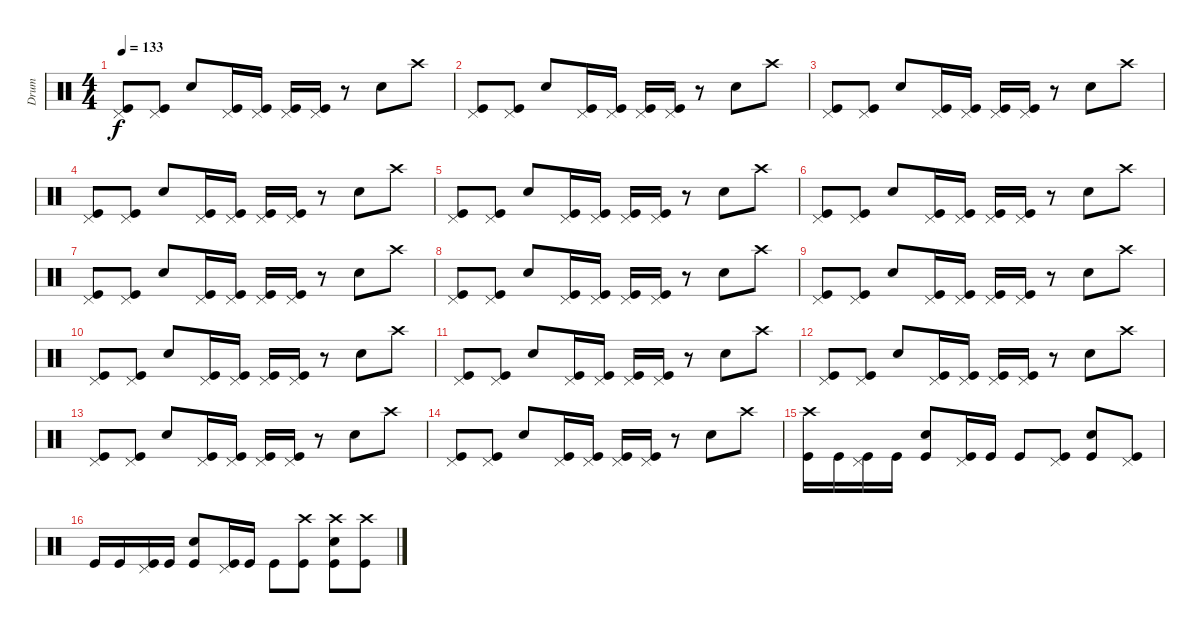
\track ("Drum" "Drum") {instrument percussion}
\staff {score}
\articulation defaults
\ts (4 4)
\tempo 133
\clef neutral
\ks c
("Kick (hit)" "Pedal Hi-Hat (hit)").8{dy f} ("Kick (hit)" "Pedal Hi-Hat (hit)").8 "Snare (hit) 2".8 ("Pedal Hi-Hat (hit)" "Kick (hit)").16 ("Kick (hit)" "Pedal Hi-Hat (hit)").16 ("Kick (hit)" "Pedal Hi-Hat (hit)").16 ("Kick (hit)" "Pedal Hi-Hat (hit)").16 r.8 "Snare (hit) 2".8 "Crash high (hit)".8 |
("Kick (hit)" "Pedal Hi-Hat (hit)").8 ("Kick (hit)" "Pedal Hi-Hat (hit)").8 "Snare (hit) 2".8 ("Pedal Hi-Hat (hit)" "Kick (hit)").16 ("Kick (hit)" "Pedal Hi-Hat (hit)").16 ("Kick (hit)" "Pedal Hi-Hat (hit)").16 ("Kick (hit)" "Pedal Hi-Hat (hit)").16 r.8 "Snare (hit) 2".8 "Crash high (hit)".8 |
("Kick (hit)" "Pedal Hi-Hat (hit)").8 ("Kick (hit)" "Pedal Hi-Hat (hit)").8 "Snare (hit) 2".8 ("Pedal Hi-Hat (hit)" "Kick (hit)").16 ("Kick (hit)" "Pedal Hi-Hat (hit)").16 ("Kick (hit)" "Pedal Hi-Hat (hit)").16 ("Kick (hit)" "Pedal Hi-Hat (hit)").16 r.8 "Snare (hit) 2".8 "Crash high (hit)".8 |
("Kick (hit)" "Pedal Hi-Hat (hit)").8 ("Kick (hit)" "Pedal Hi-Hat (hit)").8 "Snare (hit) 2".8 ("Pedal Hi-Hat (hit)" "Kick (hit)").16 ("Kick (hit)" "Pedal Hi-Hat (hit)").16 ("Kick (hit)" "Pedal Hi-Hat (hit)").16 ("Kick (hit)" "Pedal Hi-Hat (hit)").16 r.8 "Snare (hit) 2".8 "Crash high (hit)".8 |
("Kick (hit)" "Pedal Hi-Hat (hit)").8 ("Kick (hit)" "Pedal Hi-Hat (hit)").8 "Snare (hit) 2".8 ("Pedal Hi-Hat (hit)" "Kick (hit)").16 ("Kick (hit)" "Pedal Hi-Hat (hit)").16 ("Kick (hit)" "Pedal Hi-Hat (hit)").16 ("Kick (hit)" "Pedal Hi-Hat (hit)").16 r.8 "Snare (hit) 2".8 "Crash high (hit)".8 |
("Kick (hit)" "Pedal Hi-Hat (hit)").8 ("Kick (hit)" "Pedal Hi-Hat (hit)").8 "Snare (hit) 2".8 ("Pedal Hi-Hat (hit)" "Kick (hit)").16 ("Kick (hit)" "Pedal Hi-Hat (hit)").16 ("Kick (hit)" "Pedal Hi-Hat (hit)").16 ("Kick (hit)" "Pedal Hi-Hat (hit)").16 r.8 "Snare (hit) 2".8 "Crash high (hit)".8 |
("Kick (hit)" "Pedal Hi-Hat (hit)").8 ("Kick (hit)" "Pedal Hi-Hat (hit)").8 "Snare (hit) 2".8 ("Pedal Hi-Hat (hit)" "Kick (hit)").16 ("Kick (hit)" "Pedal Hi-Hat (hit)").16 ("Kick (hit)" "Pedal Hi-Hat (hit)").16 ("Kick (hit)" "Pedal Hi-Hat (hit)").16 r.8 "Snare (hit) 2".8 "Crash high (hit)".8 |
("Kick (hit)" "Pedal Hi-Hat (hit)").8 ("Kick (hit)" "Pedal Hi-Hat (hit)").8 "Snare (hit) 2".8 ("Pedal Hi-Hat (hit)" "Kick (hit)").16 ("Kick (hit)" "Pedal Hi-Hat (hit)").16 ("Kick (hit)" "Pedal Hi-Hat (hit)").16 ("Kick (hit)" "Pedal Hi-Hat (hit)").16 r.8 "Snare (hit) 2".8 "Crash high (hit)".8 |
("Kick (hit)" "Pedal Hi-Hat (hit)").8 ("Kick (hit)" "Pedal Hi-Hat (hit)").8 "Snare (hit) 2".8 ("Pedal Hi-Hat (hit)" "Kick (hit)").16 ("Kick (hit)" "Pedal Hi-Hat (hit)").16 ("Kick (hit)" "Pedal Hi-Hat (hit)").16 ("Kick (hit)" "Pedal Hi-Hat (hit)").16 r.8 "Snare (hit) 2".8 "Crash high (hit)".8 |
("Kick (hit)" "Pedal Hi-Hat (hit)").8 ("Kick (hit)" "Pedal Hi-Hat (hit)").8 "Snare (hit) 2".8 ("Pedal Hi-Hat (hit)" "Kick (hit)").16 ("Kick (hit)" "Pedal Hi-Hat (hit)").16 ("Kick (hit)" "Pedal Hi-Hat (hit)").16 ("Kick (hit)" "Pedal Hi-Hat (hit)").16 r.8 "Snare (hit) 2".8 "Crash high (hit)".8 |
("Kick (hit)" "Pedal Hi-Hat (hit)").8 ("Kick (hit)" "Pedal Hi-Hat (hit)").8 "Snare (hit) 2".8 ("Pedal Hi-Hat (hit)" "Kick (hit)").16 ("Kick (hit)" "Pedal Hi-Hat (hit)").16 ("Kick (hit)" "Pedal Hi-Hat (hit)").16 ("Kick (hit)" "Pedal Hi-Hat (hit)").16 r.8 "Snare (hit) 2".8 "Crash high (hit)".8 |
("Kick (hit)" "Pedal Hi-Hat (hit)").8 ("Kick (hit)" "Pedal Hi-Hat (hit)").8 "Snare (hit) 2".8 ("Pedal Hi-Hat (hit)" "Kick (hit)").16 ("Kick (hit)" "Pedal Hi-Hat (hit)").16 ("Kick (hit)" "Pedal Hi-Hat (hit)").16 ("Kick (hit)" "Pedal Hi-Hat (hit)").16 r.8 "Snare (hit) 2".8 "Crash high (hit)".8 |
("Kick (hit)" "Pedal Hi-Hat (hit)").8 ("Kick (hit)" "Pedal Hi-Hat (hit)").8 "Snare (hit) 2".8 ("Pedal Hi-Hat (hit)" "Kick (hit)").16 ("Kick (hit)" "Pedal Hi-Hat (hit)").16 ("Kick (hit)" "Pedal Hi-Hat (hit)").16 ("Kick (hit)" "Pedal Hi-Hat (hit)").16 r.8 "Snare (hit) 2".8 "Crash high (hit)".8 |
("Kick (hit)" "Pedal Hi-Hat (hit)").8 ("Kick (hit)" "Pedal Hi-Hat (hit)").8 "Snare (hit) 2".8 ("Pedal Hi-Hat (hit)" "Kick (hit)").16 ("Kick (hit)" "Pedal Hi-Hat (hit)").16 ("Kick (hit)" "Pedal Hi-Hat (hit)").16 ("Kick (hit)" "Pedal Hi-Hat (hit)").16 r.8 "Snare (hit) 2".8 "Crash high (hit)".8 |
("Kick (hit)" "Crash high (hit)").16 "Kick (hit)".16 ("Kick (hit)" "Pedal Hi-Hat (hit)").16 "Kick (hit)".16 ("Kick (hit)" "Snare (hit) 2").8 ("Kick (hit)" "Pedal Hi-Hat (hit)").16 "Kick (hit)".16 "Kick (hit)".8 ("Kick (hit)" "Pedal Hi-Hat (hit)").8 ("Kick (hit)" "Snare (hit) 2").8 ("Kick (hit)" "Pedal Hi-Hat (hit)").8 |
"Kick (hit)".16 "Kick (hit)".16 ("Kick (hit)" "Pedal Hi-Hat (hit)").16 "Kick (hit)".16 ("Kick (hit)" "Snare (hit) 2").8 ("Kick (hit)" "Pedal Hi-Hat (hit)").16 "Kick (hit)".16 "Kick (hit)".8 ("Kick (hit)" "Crash high (hit)").8 ("Kick (hit)" "Snare (hit) 2" "Crash high (hit)").8 ("Kick (hit)" "Crash high (hit)").8
